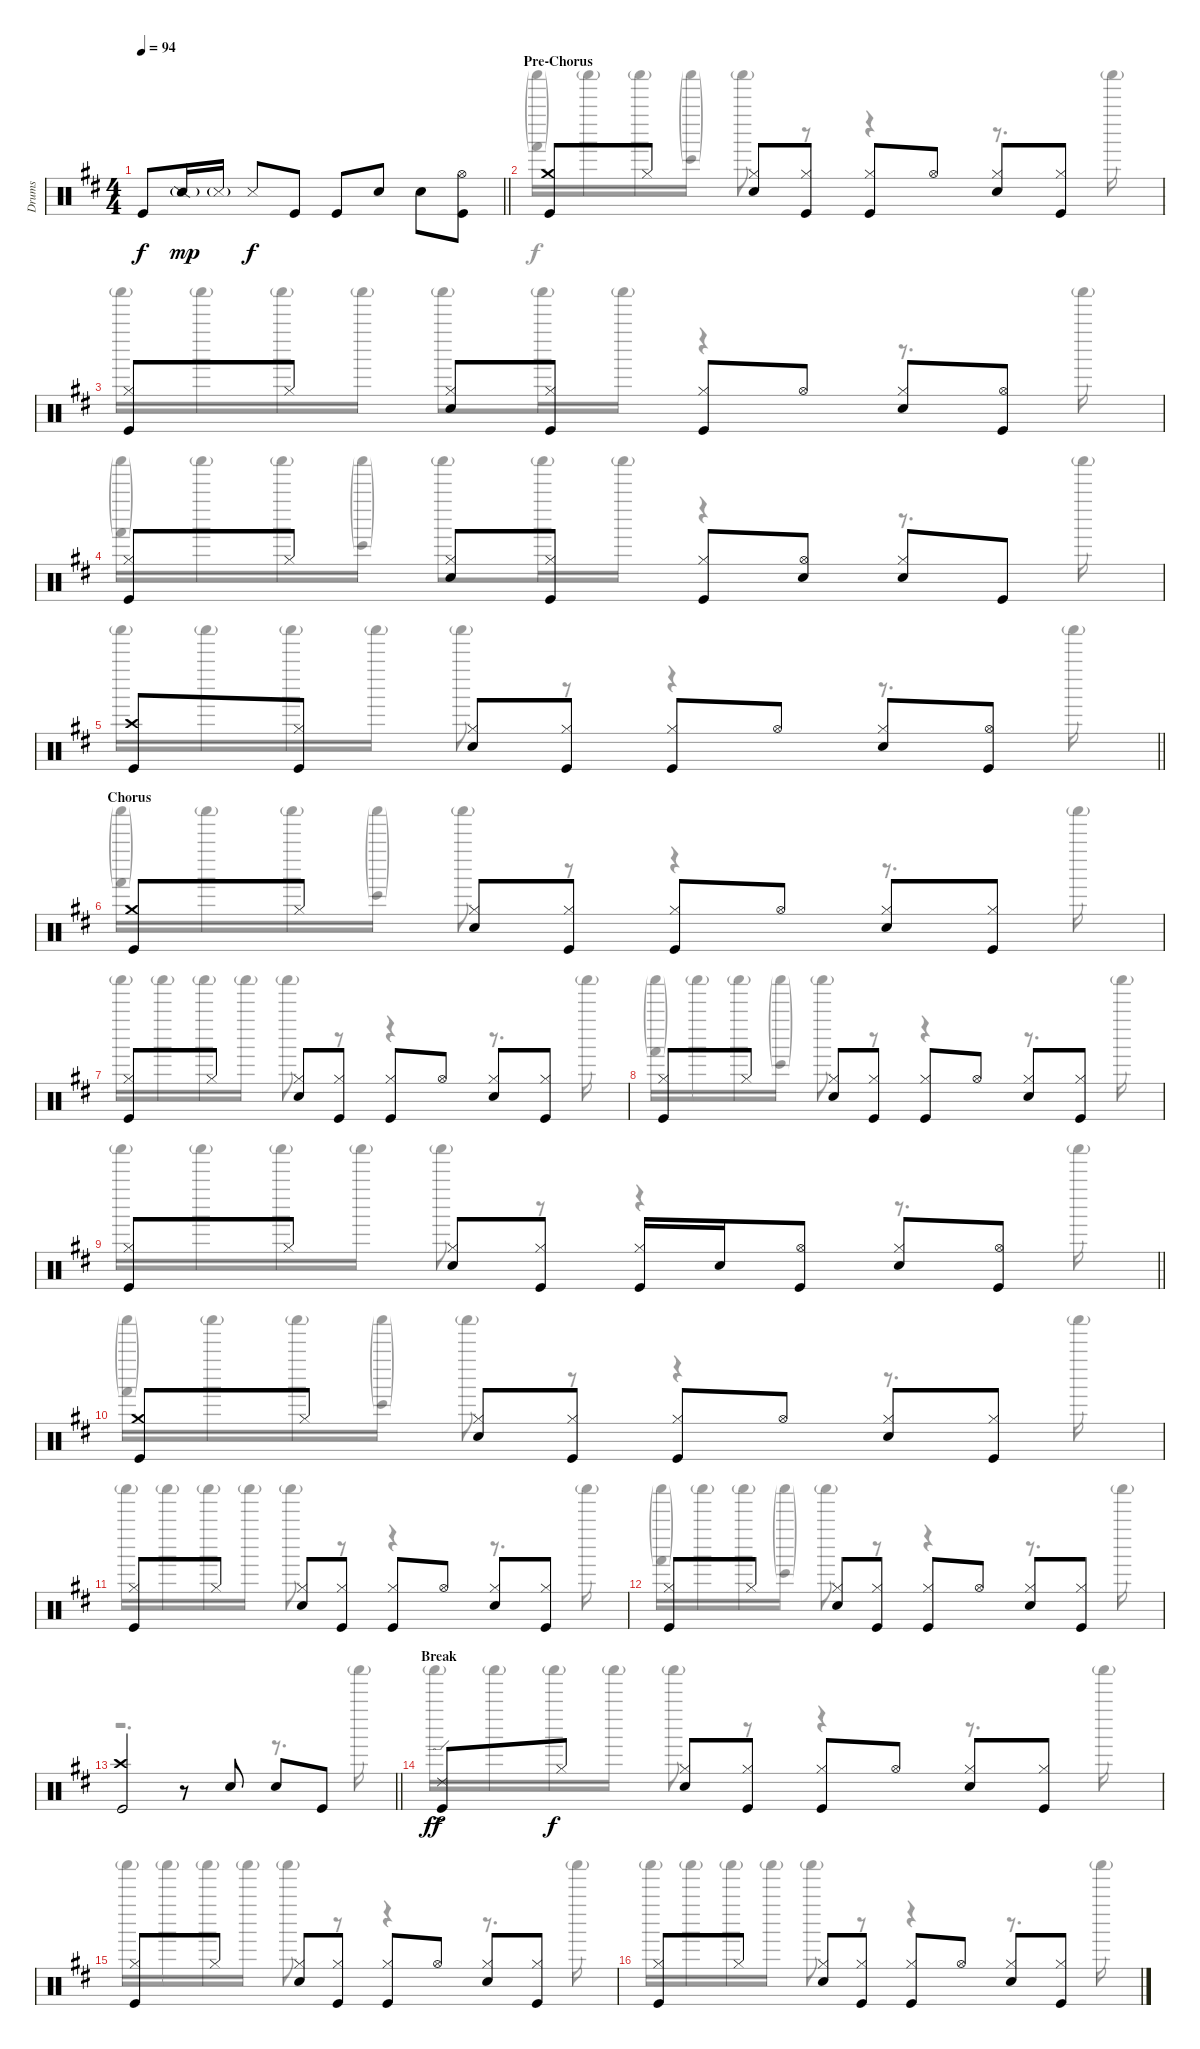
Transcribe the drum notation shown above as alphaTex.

\track ("Drums" "Drums") {instrument percussion}
\staff {score}
\articulation defaults
\voice
\ts (4 4)
\tempo 94
\clef neutral
\barLineRight lightlight
\ks d "Kick (hit)".8{dy f} "Snare (side stick) 2"{g}.16{dy mp} "Metronome (hit)"{g}.16 "Snare (side stick) 3".8{dy f} "Kick (hit)".8 "Kick (hit)".8 "Snare (hit) 2".8 "Snare (hit) 2".8
("Hi-Hat (open)" "Kick (hit)").8 |
\section ("" "Pre-Chorus")
("Crash medium (hit)" "Kick (hit)").8 "Hi-Hat (closed)".8 ("Hi-Hat (closed)" "Snare (hit) 2").8 ("Hi-Hat (closed)" "Kick (hit)").8 ("Hi-Hat (closed)" "Kick (hit)").8 "Hi-Hat (open)".8 ("Hi-Hat (closed)" "Snare (hit) 2").8 ("Hi-Hat (closed)" "Kick (hit)").8 |
("Hi-Hat (closed)" "Kick (hit)").8 "Hi-Hat (closed)".8 ("Hi-Hat (closed)" "Snare (hit) 2").8 ("Hi-Hat (closed)" "Kick (hit)").8 ("Hi-Hat (closed)" "Kick (hit)").8 "Hi-Hat (open)".8 ("Hi-Hat (closed)" "Snare (hit) 2").8 ("Hi-Hat (open)" "Kick (hit)").8 |
("Hi-Hat (closed)" "Kick (hit)").8 "Hi-Hat (closed)".8 ("Hi-Hat (closed)" "Snare (hit) 2").8 ("Hi-Hat (closed)" "Kick (hit)").8 ("Hi-Hat (closed)" "Kick (hit)").8 ("Hi-Hat (open)" "Snare (hit) 2").8 ("Hi-Hat (closed)" "Snare (hit) 2").8 "Kick (hit)".8 |
\barLineRight lightlight
("Crash high (hit)" "Kick (hit)").8 ("Hi-Hat (closed)" "Kick (hit)").8 ("Hi-Hat (closed)" "Snare (hit) 2").8 ("Hi-Hat (closed)" "Kick (hit)").8 ("Hi-Hat (closed)" "Kick (hit)").8 "Hi-Hat (open)".8 ("Hi-Hat (closed)" "Snare (hit) 2").8 ("Hi-Hat (open)" "Kick (hit)").8 |
\section ("" "Chorus")
("Crash medium (hit)" "Kick (hit)").8 "Hi-Hat (closed)".8 ("Hi-Hat (closed)" "Snare (hit) 2").8 ("Hi-Hat (closed)" "Kick (hit)").8 ("Hi-Hat (closed)" "Kick (hit)").8 "Hi-Hat (open)".8 ("Hi-Hat (closed)" "Snare (hit) 2").8 ("Hi-Hat (closed)" "Kick (hit)").8 |
("Hi-Hat (closed)" "Kick (hit)").8 "Hi-Hat (closed)".8 ("Hi-Hat (closed)" "Snare (hit) 2").8 ("Hi-Hat (closed)" "Kick (hit)").8 ("Hi-Hat (closed)" "Kick (hit)").8 "Hi-Hat (open)".8 ("Hi-Hat (closed)" "Snare (hit) 2").8 ("Hi-Hat (closed)" "Kick (hit)").8 |
("Hi-Hat (closed)" "Kick (hit)").8 "Hi-Hat (closed)".8 ("Hi-Hat (closed)" "Snare (hit) 2").8 ("Hi-Hat (closed)" "Kick (hit)").8 ("Hi-Hat (closed)" "Kick (hit)").8 "Hi-Hat (open)".8 ("Hi-Hat (closed)" "Snare (hit) 2").8 ("Hi-Hat (closed)" "Kick (hit)").8 |
\barLineRight lightlight
("Hi-Hat (closed)" "Kick (hit)").8 "Hi-Hat (closed)".8 ("Hi-Hat (closed)" "Snare (hit) 2").8 ("Hi-Hat (closed)" "Kick (hit)").8 ("Hi-Hat (closed)" "Kick (hit)").16 "Snare (hit) 2".16 ("Hi-Hat (open)" "Kick (hit)").8 ("Hi-Hat (closed)" "Snare (hit) 2").8 ("Hi-Hat (open)" "Kick (hit)").8 |
\section ("" "")
("Crash medium (hit)" "Kick (hit)").8 "Hi-Hat (closed)".8 ("Hi-Hat (closed)" "Snare (hit) 2").8 ("Hi-Hat (closed)" "Kick (hit)").8 ("Hi-Hat (closed)" "Kick (hit)").8 "Hi-Hat (open)".8 ("Hi-Hat (closed)" "Snare (hit) 2").8 ("Hi-Hat (closed)" "Kick (hit)").8 |
("Hi-Hat (closed)" "Kick (hit)").8 "Hi-Hat (closed)".8 ("Hi-Hat (closed)" "Snare (hit) 2").8 ("Hi-Hat (closed)" "Kick (hit)").8 ("Hi-Hat (closed)" "Kick (hit)").8 "Hi-Hat (open)".8 ("Hi-Hat (closed)" "Snare (hit) 2").8 ("Hi-Hat (closed)" "Kick (hit)").8 |
("Hi-Hat (closed)" "Kick (hit)").8 "Hi-Hat (closed)".8 ("Hi-Hat (closed)" "Snare (hit) 2").8 ("Hi-Hat (closed)" "Kick (hit)").8 ("Hi-Hat (closed)" "Kick (hit)").8 "Hi-Hat (open)".8 ("Hi-Hat (closed)" "Snare (hit) 2").8 ("Hi-Hat (closed)" "Kick (hit)").8 |
\barLineRight lightlight
("Crash high (hit)" "Kick (hit)").2 r.8 "Snare (hit) 2".8 "Snare (hit) 2".8 "Kick (hit)".8 |
\section ("" "Break")
("Ride (edge) 2"{ac} "Kick (hit)").8{dy ff} "Hi-Hat (closed)".8{dy f} ("Hi-Hat (closed)" "Snare (hit) 2").8 ("Hi-Hat (closed)" "Kick (hit)").8 ("Hi-Hat (closed)" "Kick (hit)").8 "Hi-Hat (open)".8 ("Hi-Hat (closed)" "Snare (hit) 2").8 ("Hi-Hat (closed)" "Kick (hit)").8 |
("Hi-Hat (closed)" "Kick (hit)").8 "Hi-Hat (closed)".8 ("Hi-Hat (closed)" "Snare (hit) 2").8 ("Hi-Hat (closed)" "Kick (hit)").8 ("Hi-Hat (closed)" "Kick (hit)").8 "Hi-Hat (open)".8 ("Hi-Hat (closed)" "Snare (hit) 2").8 ("Hi-Hat (closed)" "Kick (hit)").8 |
("Hi-Hat (closed)" "Kick (hit)").8 "Hi-Hat (closed)".8 ("Hi-Hat (closed)" "Snare (hit) 2").8 ("Hi-Hat (closed)" "Kick (hit)").8 ("Hi-Hat (closed)" "Kick (hit)").8 "Hi-Hat (open)".8 ("Hi-Hat (closed)" "Snare (hit) 2").8 ("Hi-Hat (closed)" "Kick (hit)").8
\voice
\clef neutral
\ottava regular
\simile none
\barLineRight lightlight
\ks d
|
("Shaker (hit)"{g} "Hand (hit)"{g}).16 "Shaker (hit)"{g}.16 "Shaker (hit)"{g}.16 ("Shaker (hit)"{g} "Bongo High (hit)"{g}).16 "Shaker (hit)"{g}.8 r.8 r.4 r.8{d} "Shaker (hit)"{g}.16 |
"Shaker (hit)"{g}.16 "Shaker (hit)"{g}.16 "Shaker (hit)"{g}.16 "Shaker (hit)"{g}.16 "Shaker (hit)"{g}.8 "Shaker (hit)"{g}.16 "Shaker (hit)"{g}.16 r.4 r.8{d} "Shaker (hit)"{g}.16 |
("Shaker (hit)"{g} "Hand (hit)"{g}).16 "Shaker (hit)"{g}.16 "Shaker (hit)"{g}.16 ("Shaker (hit)"{g} "Bongo High (hit)"{g}).16 "Shaker (hit)"{g}.8 "Shaker (hit)"{g}.16 "Shaker (hit)"{g}.16 r.4 r.8{d} "Shaker (hit)"{g}.16 |
\barLineRight lightlight "Shaker (hit)"{g}.16 "Shaker (hit)"{g}.16 "Shaker (hit)"{g}.16 "Shaker (hit)"{g}.16 "Shaker (hit)"{g}.8
r.8 r.4 r.8{d} "Shaker (hit)"{g}.16 |
("Shaker (hit)"{g} "Hand (hit)"{g}).16 "Shaker (hit)"{g}.16 "Shaker (hit)"{g}.16 ("Shaker (hit)"{g} "Bongo High (hit)"{g}).16 "Shaker (hit)"{g}.8 r.8 r.4 r.8{d} "Shaker (hit)"{g}.16 |
"Shaker (hit)"{g}.16 "Shaker (hit)"{g}.16 "Shaker (hit)"{g}.16 "Shaker (hit)"{g}.16 "Shaker (hit)"{g}.8 r.8 r.4 r.8{d} "Shaker (hit)"{g}.16 |
("Shaker (hit)"{g} "Hand (hit)"{g}).16 "Shaker (hit)"{g}.16 "Shaker (hit)"{g}.16 ("Shaker (hit)"{g} "Bongo High (hit)"{g}).16 "Shaker (hit)"{g}.8 r.8 r.4 r.8{d} "Shaker (hit)"{g}.16 |
\barLineRight lightlight "Shaker (hit)"{g}.16 "Shaker (hit)"{g}.16 "Shaker (hit)"{g}.16 "Shaker (hit)"{g}.16 "Shaker (hit)"{g}.8
r.8 r.4 r.8{d} "Shaker (hit)"{g}.16 |
("Shaker (hit)"{g} "Hand (hit)"{g}).16 "Shaker (hit)"{g}.16 "Shaker (hit)"{g}.16 ("Shaker (hit)"{g} "Bongo High (hit)"{g}).16 "Shaker (hit)"{g}.8 r.8 r.4 r.8{d} "Shaker (hit)"{g}.16 |
"Shaker (hit)"{g}.16 "Shaker (hit)"{g}.16 "Shaker (hit)"{g}.16 "Shaker (hit)"{g}.16 "Shaker (hit)"{g}.8 r.8 r.4 r.8{d} "Shaker (hit)"{g}.16 |
("Shaker (hit)"{g} "Hand (hit)"{g}).16 "Shaker (hit)"{g}.16 "Shaker (hit)"{g}.16 ("Shaker (hit)"{g} "Bongo High (hit)"{g}).16 "Shaker (hit)"{g}.8 r.8 r.4 r.8{d} "Shaker (hit)"{g}.16 |
\barLineRight lightlight
r.2{d} r.8{d} "Shaker (hit)"{g}.16 |
"Shaker (hit)"{g}.16 "Shaker (hit)"{g}.16 "Shaker (hit)"{g}.16 "Shaker (hit)"{g}.16 "Shaker (hit)"{g}.8 r.8 r.4 r.8{d} "Shaker (hit)"{g}.16 |
"Shaker (hit)"{g}.16 "Shaker (hit)"{g}.16 "Shaker (hit)"{g}.16 "Shaker (hit)"{g}.16 "Shaker (hit)"{g}.8 r.8 r.4 r.8{d} "Shaker (hit)"{g}.16 |
"Shaker (hit)"{g}.16 "Shaker (hit)"{g}.16 "Shaker (hit)"{g}.16 "Shaker (hit)"{g}.16 "Shaker (hit)"{g}.8 r.8 r.4 r.8{d} "Shaker (hit)"{g}.16
